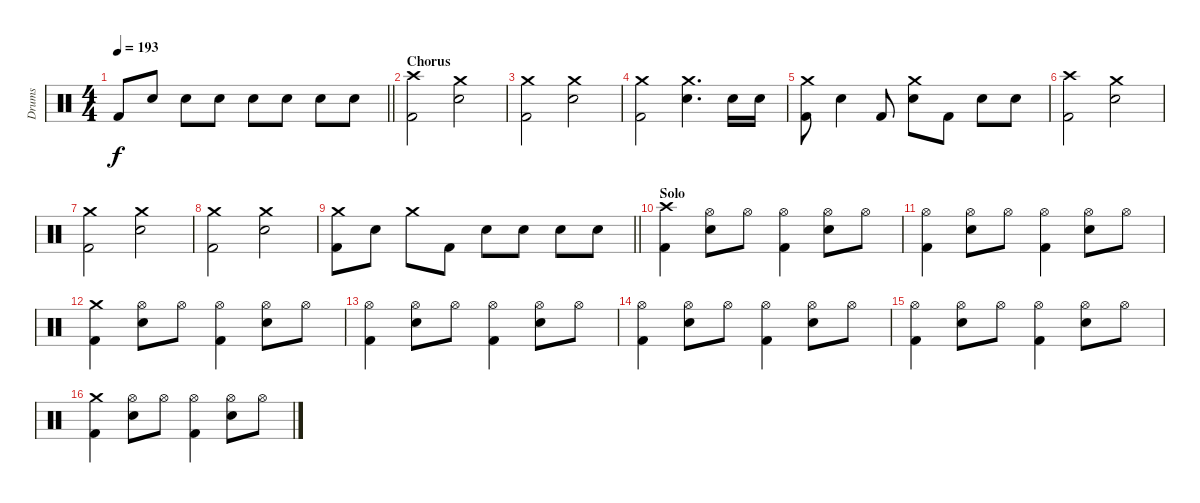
\track ("Drums" "Drums") {instrument percussion}
\staff {score}
\articulation defaults
\ts (4 4)
\tempo 193
\clef neutral
\barLineRight lightlight
\ks c "Kick (hit) 2".8{dy f} "Snare (hit) 2".8 "Snare (hit) 2".8 "Snare (hit) 2".8 "Snare (hit) 2".8 "Snare (hit) 2".8 "Snare (hit) 2".8 "Snare (hit) 2".8
|
\section ("" "Chorus")
("Crash high (hit)" "Kick (hit) 2").2 ("Crash medium (hit)" "Snare (hit) 2").2 |
("Crash medium (hit)" "Kick (hit) 2").2 ("Crash medium (hit)" "Snare (hit) 2").2 |
("Crash medium (hit)" "Kick (hit) 2").2 ("Crash medium (hit)" "Snare (hit) 2").4{d} "Snare (hit) 2".16 "Snare (hit) 2".16 |
("Crash medium (hit)" "Kick (hit) 2").8 "Snare (hit) 2".4 "Kick (hit) 2".8 ("Crash medium (hit)" "Snare (hit) 2").8 "Kick (hit) 2".8 "Snare (hit) 2".8 "Snare (hit) 2".8 |
("Crash high (hit)" "Kick (hit) 2").2 ("Crash medium (hit)" "Snare (hit) 2").2 |
("Crash medium (hit)" "Kick (hit) 2").2 ("Crash medium (hit)" "Snare (hit) 2").2 |
("Crash medium (hit)" "Kick (hit) 2").2 ("Crash medium (hit)" "Snare (hit) 2").2 |
\barLineRight lightlight
("Crash medium (hit)" "Kick (hit) 2").8 "Snare (hit) 2".8 "Crash medium (hit)".8 "Kick (hit) 2".8 "Snare (hit) 2".8 "Snare (hit) 2".8 "Snare (hit) 2".8 "Snare (hit) 2".8 |
\section ("" "Solo")
("Crash high (hit)" "Kick (hit) 2").4 ("Hi-Hat (open)" "Snare (hit) 2").8 "Hi-Hat (open)".8 ("Hi-Hat (open)" "Kick (hit) 2").4 ("Hi-Hat (open)" "Snare (hit) 2").8 "Hi-Hat (open)".8 |
("Hi-Hat (open)" "Kick (hit) 2").4 ("Hi-Hat (open)" "Snare (hit) 2").8 "Hi-Hat (open)".8 ("Hi-Hat (open)" "Kick (hit) 2").4 ("Hi-Hat (open)" "Snare (hit) 2").8 "Hi-Hat (open)".8 |
("Crash medium (hit)" "Kick (hit) 2").4 ("Hi-Hat (open)" "Snare (hit) 2").8 "Hi-Hat (open)".8 ("Hi-Hat (open)" "Kick (hit) 2").4 ("Hi-Hat (open)" "Snare (hit) 2").8 "Hi-Hat (open)".8 |
("Hi-Hat (open)" "Kick (hit) 2").4 ("Hi-Hat (open)" "Snare (hit) 2").8 "Hi-Hat (open)".8 ("Hi-Hat (open)" "Kick (hit) 2").4 ("Hi-Hat (open)" "Snare (hit) 2").8 "Hi-Hat (open)".8 |
("Hi-Hat (open)" "Kick (hit) 2").4 ("Hi-Hat (open)" "Snare (hit) 2").8 "Hi-Hat (open)".8 ("Hi-Hat (open)" "Kick (hit) 2").4 ("Hi-Hat (open)" "Snare (hit) 2").8 "Hi-Hat (open)".8 |
("Hi-Hat (open)" "Kick (hit) 2").4 ("Hi-Hat (open)" "Snare (hit) 2").8 "Hi-Hat (open)".8 ("Hi-Hat (open)" "Kick (hit) 2").4 ("Hi-Hat (open)" "Snare (hit) 2").8 "Hi-Hat (open)".8 |
("Crash medium (hit)" "Kick (hit) 2").4 ("Hi-Hat (open)" "Snare (hit) 2").8 "Hi-Hat (open)".8 ("Hi-Hat (open)" "Kick (hit) 2").4 ("Hi-Hat (open)" "Snare (hit) 2").8 "Hi-Hat (open)".8
